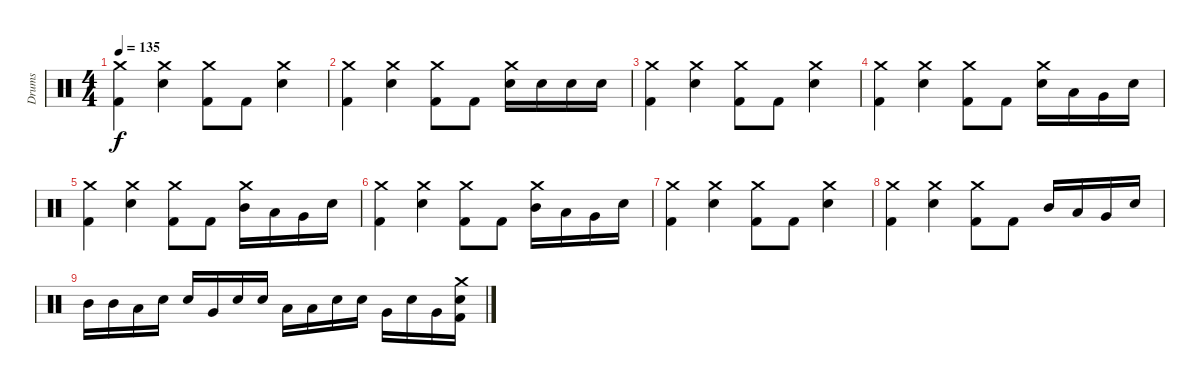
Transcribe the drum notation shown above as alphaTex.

\track ("Drums" "Drums") {instrument percussion}
\staff {score}
\articulation defaults
\ts (4 4)
\tempo 135
\clef neutral
\ks c
("Crash medium (hit)" "Kick (hit) 2").4{dy f} ("Crash medium (hit)" "Electric Snare (hit)").4 ("Crash medium (hit)" "Kick (hit) 2").8 "Kick (hit) 2".8 ("Crash medium (hit)" "Electric Snare (hit)").4 |
("Crash medium (hit)" "Kick (hit) 2").4 ("Crash medium (hit)" "Electric Snare (hit)").4 ("Crash medium (hit)" "Kick (hit) 2").8 "Kick (hit) 2".8 ("Crash medium (hit)" "Electric Snare (hit)").16 "Electric Snare (hit)".16 "Electric Snare (hit)".16 "Electric Snare (hit)".16 |
("Crash medium (hit)" "Kick (hit) 2").4 ("Crash medium (hit)" "Electric Snare (hit)").4 ("Crash medium (hit)" "Kick (hit) 2").8 "Kick (hit) 2".8 ("Crash medium (hit)" "Electric Snare (hit)").4 |
("Crash medium (hit)" "Kick (hit) 2").4 ("Crash medium (hit)" "Electric Snare (hit)").4 ("Crash medium (hit)" "Kick (hit) 2").8 "Kick (hit) 2".8 ("Crash medium (hit)" "Electric Snare (hit)").16 "Low Tom (hit)".16 "Very Low Tom (hit)".16 "Electric Snare (hit)".16 |
("Crash medium (hit)" "Kick (hit) 2").4 ("Crash medium (hit)" "Electric Snare (hit)").4 ("Crash medium (hit)" "Kick (hit) 2").8 "Kick (hit) 2".8 ("Mid Tom (hit)" "Crash medium (hit)").16 "Low Tom (hit)".16 "Very Low Tom (hit)".16 "Electric Snare (hit)".16 |
("Crash medium (hit)" "Kick (hit) 2").4 ("Crash medium (hit)" "Electric Snare (hit)").4 ("Crash medium (hit)" "Kick (hit) 2").8 "Kick (hit) 2".8 ("Mid Tom (hit)" "Crash medium (hit)").16 "Low Tom (hit)".16 "Very Low Tom (hit)".16 "Electric Snare (hit)".16 |
("Crash medium (hit)" "Kick (hit) 2").4 ("Crash medium (hit)" "Electric Snare (hit)").4 ("Crash medium (hit)" "Kick (hit) 2").8 "Kick (hit) 2".8 ("Crash medium (hit)" "Electric Snare (hit)").4 |
("Crash medium (hit)" "Kick (hit) 2").4 ("Crash medium (hit)" "Electric Snare (hit)").4 ("Crash medium (hit)" "Kick (hit) 2").8 "Kick (hit) 2".8 "Mid Tom (hit)".16 "Low Tom (hit)".16 "Very Low Tom (hit)".16 "Electric Snare (hit)".16 |
"Mid Tom (hit)".16 "Mid Tom (hit)".16 "Low Tom (hit)".16 "Electric Snare (hit)".16 "Electric Snare (hit)".16 "Very Low Tom (hit)".16 "Electric Snare (hit)".16 "Electric Snare (hit)".16 "Low Tom (hit)".16 "Low Tom (hit)".16 "Electric Snare (hit)".16 "Electric Snare (hit)".16 "Very Low Tom (hit)".16 "Electric Snare (hit)".16 "Very Low Tom (hit)".16 ("Crash medium (hit)" "Electric Snare (hit)" "Kick (hit) 2").16
